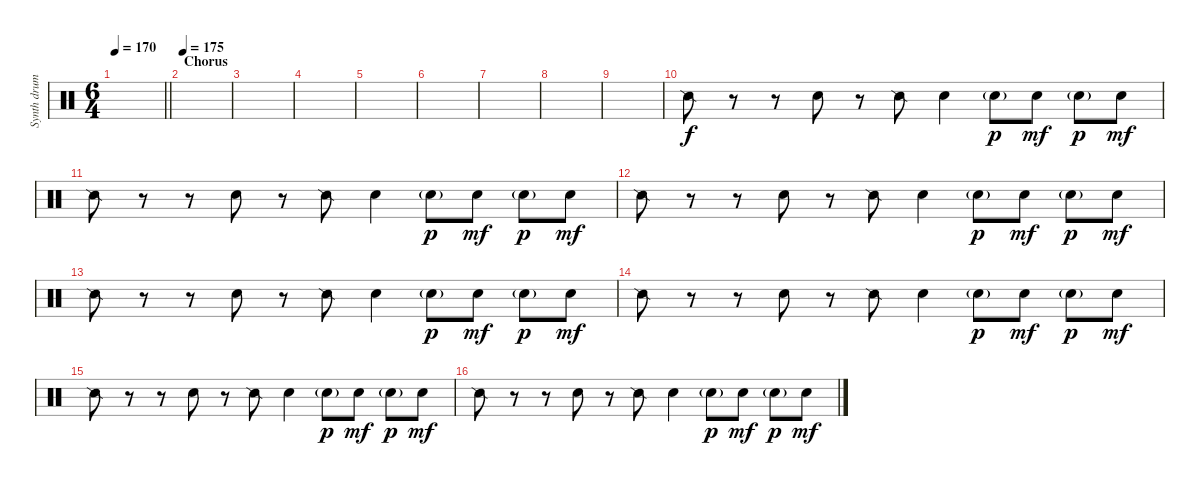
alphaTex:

\track ("Synth drums" "Synth drum") {instrument percussion}
\staff {score}
\articulation defaults
\ts (6 4)
\tempo 170
\clef neutral
\barLineRight lightlight
\ks c
|
\section ("" "Chorus ")
\tempo 175
|
|
|
|
|
|
|
|
"Snare (side stick) 2".8 r.8 r.8 "Hand Clap (hit)".8 r.8 "Snare (side stick) 2".8 "Hand Clap (hit)".4 "Hand Clap (hit)"{g}.8{dy p} "Hand Clap (hit)".8{dy mf} "Hand Clap (hit)"{g}.8{dy p} "Hand Clap (hit)".8{dy mf} |
"Snare (side stick) 2".8 r.8 r.8 "Hand Clap (hit)".8 r.8 "Snare (side stick) 2".8 "Hand Clap (hit)".4 "Hand Clap (hit)"{g}.8{dy p} "Hand Clap (hit)".8{dy mf} "Hand Clap (hit)"{g}.8{dy p} "Hand Clap (hit)".8{dy mf} |
"Snare (side stick) 2".8 r.8 r.8 "Hand Clap (hit)".8 r.8 "Snare (side stick) 2".8 "Hand Clap (hit)".4 "Hand Clap (hit)"{g}.8{dy p} "Hand Clap (hit)".8{dy mf} "Hand Clap (hit)"{g}.8{dy p} "Hand Clap (hit)".8{dy mf} |
"Snare (side stick) 2".8 r.8 r.8 "Hand Clap (hit)".8 r.8 "Snare (side stick) 2".8 "Hand Clap (hit)".4 "Hand Clap (hit)"{g}.8{dy p} "Hand Clap (hit)".8{dy mf} "Hand Clap (hit)"{g}.8{dy p} "Hand Clap (hit)".8{dy mf} |
"Snare (side stick) 2".8 r.8 r.8 "Hand Clap (hit)".8 r.8 "Snare (side stick) 2".8 "Hand Clap (hit)".4 "Hand Clap (hit)"{g}.8{dy p} "Hand Clap (hit)".8{dy mf} "Hand Clap (hit)"{g}.8{dy p} "Hand Clap (hit)".8{dy mf} |
"Snare (side stick) 2".8 r.8 r.8 "Hand Clap (hit)".8 r.8 "Snare (side stick) 2".8 "Hand Clap (hit)".4 "Hand Clap (hit)"{g}.8{dy p} "Hand Clap (hit)".8{dy mf} "Hand Clap (hit)"{g}.8{dy p} "Hand Clap (hit)".8{dy mf} |
"Snare (side stick) 2".8 r.8 r.8 "Hand Clap (hit)".8 r.8 "Snare (side stick) 2".8 "Hand Clap (hit)".4 "Hand Clap (hit)"{g}.8{dy p} "Hand Clap (hit)".8{dy mf} "Hand Clap (hit)"{g}.8{dy p} "Hand Clap (hit)".8{dy mf}
